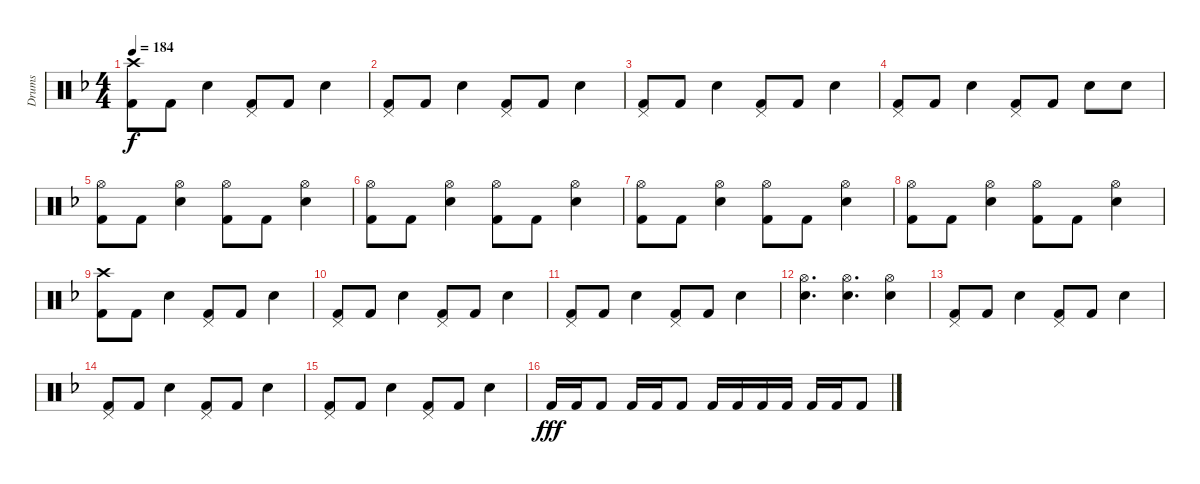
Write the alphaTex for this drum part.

\track ("Drums" "Drums") {instrument percussion}
\staff {score}
\articulation defaults
\ts (4 4)
\tempo 184
\clef neutral
\ks f
("Crash high (hit)" "Kick (hit) 2").8{dy f} "Kick (hit) 2".8 "Electric Snare (hit)".4 ("Pedal Hi-Hat (hit)" "Kick (hit) 2").8 "Kick (hit) 2".8 "Electric Snare (hit)".4 |
("Pedal Hi-Hat (hit)" "Kick (hit) 2").8 "Kick (hit) 2".8 "Electric Snare (hit)".4 ("Pedal Hi-Hat (hit)" "Kick (hit) 2").8 "Kick (hit) 2".8 "Electric Snare (hit)".4 |
("Pedal Hi-Hat (hit)" "Kick (hit) 2").8 "Kick (hit) 2".8 "Electric Snare (hit)".4 ("Pedal Hi-Hat (hit)" "Kick (hit) 2").8 "Kick (hit) 2".8 "Electric Snare (hit)".4 |
("Pedal Hi-Hat (hit)" "Kick (hit) 2").8 "Kick (hit) 2".8 "Electric Snare (hit)".4 ("Pedal Hi-Hat (hit)" "Kick (hit) 2").8 "Kick (hit) 2".8 "Electric Snare (hit)".8 "Electric Snare (hit)".8 |
("Hi-Hat (open)" "Kick (hit) 2").8 "Kick (hit) 2".8 ("Electric Snare (hit)" "Hi-Hat (open)").4 ("Hi-Hat (open)" "Kick (hit) 2").8 "Kick (hit) 2".8 ("Electric Snare (hit)" "Hi-Hat (open)").4 |
("Hi-Hat (open)" "Kick (hit) 2").8 "Kick (hit) 2".8 ("Electric Snare (hit)" "Hi-Hat (open)").4 ("Hi-Hat (open)" "Kick (hit) 2").8 "Kick (hit) 2".8 ("Electric Snare (hit)" "Hi-Hat (open)").4 |
("Hi-Hat (open)" "Kick (hit) 2").8 "Kick (hit) 2".8 ("Electric Snare (hit)" "Hi-Hat (open)").4 ("Hi-Hat (open)" "Kick (hit) 2").8 "Kick (hit) 2".8 ("Electric Snare (hit)" "Hi-Hat (open)").4 |
("Hi-Hat (open)" "Kick (hit) 2").8 "Kick (hit) 2".8 ("Electric Snare (hit)" "Hi-Hat (open)").4 ("Hi-Hat (open)" "Kick (hit) 2").8 "Kick (hit) 2".8 ("Electric Snare (hit)" "Hi-Hat (open)").4 |
("Crash high (hit)" "Kick (hit) 2").8 "Kick (hit) 2".8 "Electric Snare (hit)".4 ("Pedal Hi-Hat (hit)" "Kick (hit) 2").8 "Kick (hit) 2".8 "Electric Snare (hit)".4 |
("Pedal Hi-Hat (hit)" "Kick (hit) 2").8 "Kick (hit) 2".8 "Electric Snare (hit)".4 ("Pedal Hi-Hat (hit)" "Kick (hit) 2").8 "Kick (hit) 2".8 "Electric Snare (hit)".4 |
("Pedal Hi-Hat (hit)" "Kick (hit) 2").8 "Kick (hit) 2".8 "Electric Snare (hit)".4 ("Pedal Hi-Hat (hit)" "Kick (hit) 2").8 "Kick (hit) 2".8 "Electric Snare (hit)".4 |
("Hi-Hat (open)" "Electric Snare (hit)").4{d} ("Hi-Hat (open)" "Electric Snare (hit)").4{d} ("Hi-Hat (open)" "Electric Snare (hit)").4 |
("Pedal Hi-Hat (hit)" "Kick (hit) 2").8 "Kick (hit) 2".8 "Electric Snare (hit)".4 ("Pedal Hi-Hat (hit)" "Kick (hit) 2").8 "Kick (hit) 2".8 "Electric Snare (hit)".4 |
("Pedal Hi-Hat (hit)" "Kick (hit) 2").8 "Kick (hit) 2".8 "Electric Snare (hit)".4 ("Pedal Hi-Hat (hit)" "Kick (hit) 2").8 "Kick (hit) 2".8 "Electric Snare (hit)".4 |
("Pedal Hi-Hat (hit)" "Kick (hit) 2").8 "Kick (hit) 2".8 "Electric Snare (hit)".4 ("Pedal Hi-Hat (hit)" "Kick (hit) 2").8 "Kick (hit) 2".8 "Electric Snare (hit)".4 |
"Kick (hit) 2".16{dy fff} "Kick (hit) 2".16 "Kick (hit) 2".8 "Kick (hit) 2".16 "Kick (hit) 2".16 "Kick (hit) 2".8 "Kick (hit) 2".16 "Kick (hit) 2".16 "Kick (hit) 2".16 "Kick (hit) 2".16 "Kick (hit) 2".16 "Kick (hit) 2".16 "Kick (hit) 2".8
